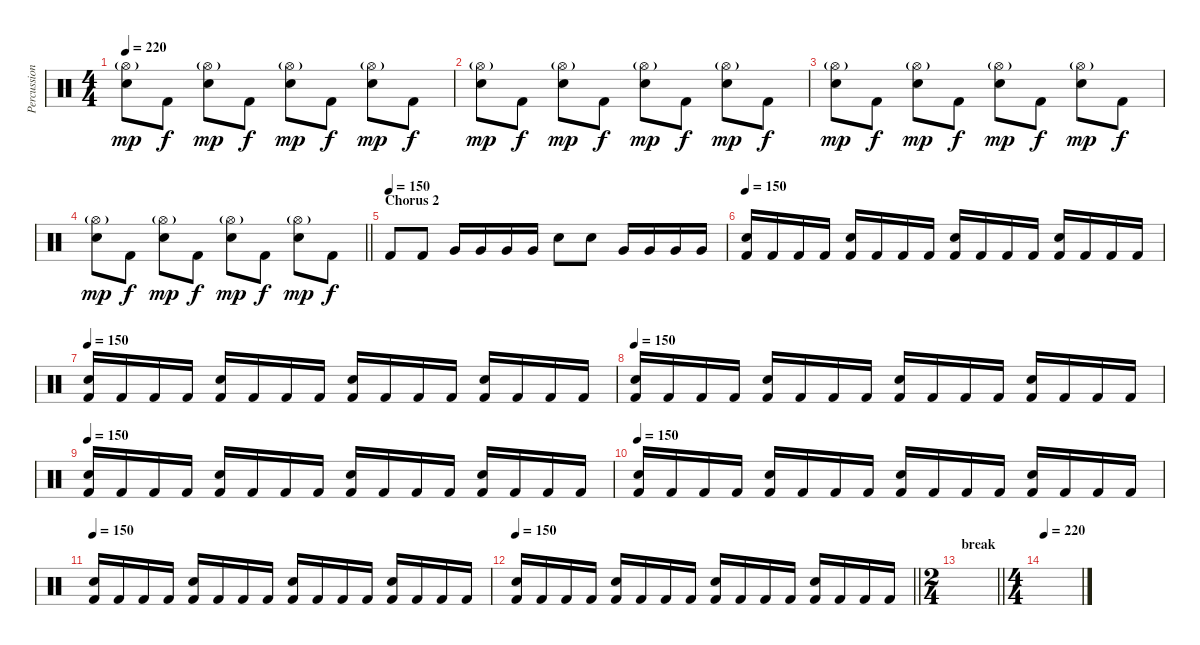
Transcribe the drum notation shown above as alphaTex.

\track ("Percussions" "Percussion") {instrument percussion}
\staff {score}
\articulation defaults
\ts (4 4)
\tempo 220
\clef neutral
\ks c
("Hi-Hat (open)"{g} "Electric Snare (hit)").8{dy mp} "Kick (hit) 2".8{dy f} ("Hi-Hat (open)"{g} "Electric Snare (hit)").8{dy mp} "Kick (hit) 2".8{dy f} ("Hi-Hat (open)"{g} "Electric Snare (hit)").8{dy mp} "Kick (hit) 2".8{dy f} ("Hi-Hat (open)"{g} "Electric Snare (hit)").8{dy mp} "Kick (hit) 2".8{dy f} |
("Hi-Hat (open)"{g} "Electric Snare (hit)").8{dy mp} "Kick (hit) 2".8{dy f} ("Hi-Hat (open)"{g} "Electric Snare (hit)").8{dy mp} "Kick (hit) 2".8{dy f} ("Hi-Hat (open)"{g} "Electric Snare (hit)").8{dy mp} "Kick (hit) 2".8{dy f} ("Hi-Hat (open)"{g} "Electric Snare (hit)").8{dy mp} "Kick (hit) 2".8{dy f} |
("Hi-Hat (open)"{g} "Electric Snare (hit)").8{dy mp} "Kick (hit) 2".8{dy f} ("Hi-Hat (open)"{g} "Electric Snare (hit)").8{dy mp} "Kick (hit) 2".8{dy f} ("Hi-Hat (open)"{g} "Electric Snare (hit)").8{dy mp} "Kick (hit) 2".8{dy f} ("Hi-Hat (open)"{g} "Electric Snare (hit)").8{dy mp} "Kick (hit) 2".8{dy f} |
\barLineRight lightlight
("Hi-Hat (open)"{g} "Electric Snare (hit)").8{dy mp} "Kick (hit) 2".8{dy f} ("Hi-Hat (open)"{g} "Electric Snare (hit)").8{dy mp} "Kick (hit) 2".8{dy f} ("Hi-Hat (open)"{g} "Electric Snare (hit)").8{dy mp} "Kick (hit) 2".8{dy f} ("Hi-Hat (open)"{g} "Electric Snare (hit)").8{dy mp} "Kick (hit) 2".8{dy f} |
\section ("" "Chorus 2")
\tempo (150)
"Kick (hit) 2".8 "Kick (hit) 2".8 "Very Low Tom (hit)".16 "Very Low Tom (hit)".16 "Very Low Tom (hit)".16 "Very Low Tom (hit)".16 "Electric Snare (hit)".8 "Electric Snare (hit)".8 "Very Low Tom (hit)".16 "Very Low Tom (hit)".16 "Very Low Tom (hit)".16 "Very Low Tom (hit)".16 |
\tempo 150
("Electric Snare (hit)" "Kick (hit) 2").16 "Kick (hit) 2".16 "Kick (hit) 2".16 "Kick (hit) 2".16 ("Electric Snare (hit)" "Kick (hit) 2").16 "Kick (hit) 2".16 "Kick (hit) 2".16 "Kick (hit) 2".16 ("Electric Snare (hit)" "Kick (hit) 2").16 "Kick (hit) 2".16 "Kick (hit) 2".16 "Kick (hit) 2".16 ("Electric Snare (hit)" "Kick (hit) 2").16 "Kick (hit) 2".16 "Kick (hit) 2".16 "Kick (hit) 2".16 |
\tempo 150
("Electric Snare (hit)" "Kick (hit) 2").16 "Kick (hit) 2".16 "Kick (hit) 2".16 "Kick (hit) 2".16 ("Electric Snare (hit)" "Kick (hit) 2").16 "Kick (hit) 2".16 "Kick (hit) 2".16 "Kick (hit) 2".16 ("Electric Snare (hit)" "Kick (hit) 2").16 "Kick (hit) 2".16 "Kick (hit) 2".16 "Kick (hit) 2".16 ("Electric Snare (hit)" "Kick (hit) 2").16 "Kick (hit) 2".16 "Kick (hit) 2".16 "Kick (hit) 2".16 |
\tempo 150
("Electric Snare (hit)" "Kick (hit) 2").16 "Kick (hit) 2".16 "Kick (hit) 2".16 "Kick (hit) 2".16 ("Electric Snare (hit)" "Kick (hit) 2").16 "Kick (hit) 2".16 "Kick (hit) 2".16 "Kick (hit) 2".16 ("Electric Snare (hit)" "Kick (hit) 2").16 "Kick (hit) 2".16 "Kick (hit) 2".16 "Kick (hit) 2".16 ("Electric Snare (hit)" "Kick (hit) 2").16 "Kick (hit) 2".16 "Kick (hit) 2".16 "Kick (hit) 2".16 |
\tempo 150
("Electric Snare (hit)" "Kick (hit) 2").16 "Kick (hit) 2".16 "Kick (hit) 2".16 "Kick (hit) 2".16 ("Electric Snare (hit)" "Kick (hit) 2").16 "Kick (hit) 2".16 "Kick (hit) 2".16 "Kick (hit) 2".16 ("Electric Snare (hit)" "Kick (hit) 2").16 "Kick (hit) 2".16 "Kick (hit) 2".16 "Kick (hit) 2".16 ("Electric Snare (hit)" "Kick (hit) 2").16 "Kick (hit) 2".16 "Kick (hit) 2".16 "Kick (hit) 2".16 |
\tempo 150
("Electric Snare (hit)" "Kick (hit) 2").16 "Kick (hit) 2".16 "Kick (hit) 2".16 "Kick (hit) 2".16 ("Electric Snare (hit)" "Kick (hit) 2").16 "Kick (hit) 2".16 "Kick (hit) 2".16 "Kick (hit) 2".16 ("Electric Snare (hit)" "Kick (hit) 2").16 "Kick (hit) 2".16 "Kick (hit) 2".16 "Kick (hit) 2".16 ("Electric Snare (hit)" "Kick (hit) 2").16 "Kick (hit) 2".16 "Kick (hit) 2".16 "Kick (hit) 2".16 |
\tempo 150
("Electric Snare (hit)" "Kick (hit) 2").16 "Kick (hit) 2".16 "Kick (hit) 2".16 "Kick (hit) 2".16 ("Electric Snare (hit)" "Kick (hit) 2").16 "Kick (hit) 2".16 "Kick (hit) 2".16 "Kick (hit) 2".16 ("Electric Snare (hit)" "Kick (hit) 2").16 "Kick (hit) 2".16 "Kick (hit) 2".16 "Kick (hit) 2".16 ("Electric Snare (hit)" "Kick (hit) 2").16 "Kick (hit) 2".16 "Kick (hit) 2".16 "Kick (hit) 2".16 |
\tempo 150
\barLineRight lightlight
("Electric Snare (hit)" "Kick (hit) 2").16 "Kick (hit) 2".16 "Kick (hit) 2".16 "Kick (hit) 2".16 ("Electric Snare (hit)" "Kick (hit) 2").16 "Kick (hit) 2".16 "Kick (hit) 2".16 "Kick (hit) 2".16 ("Electric Snare (hit)" "Kick (hit) 2").16 "Kick (hit) 2".16 "Kick (hit) 2".16 "Kick (hit) 2".16 ("Electric Snare (hit)" "Kick (hit) 2").16 "Kick (hit) 2".16 "Kick (hit) 2".16 "Kick (hit) 2".16 |
\ts (2 4)
\section ("" "break")
\barLineRight lightlight
|
\ts (4 4)
\tempo 220
